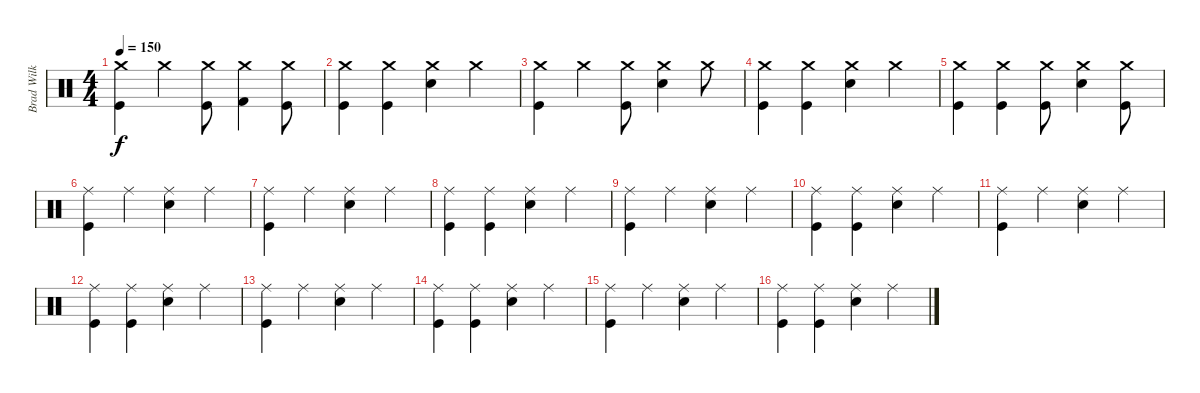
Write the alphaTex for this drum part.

\track ("Brad Wilk" "Brad Wilk") {instrument percussion}
\staff {score}
\articulation defaults
\ts (4 4)
\tempo 150
\clef neutral
\ks c
("Crash medium (hit)" "Kick (hit)").4{dy f} "Crash medium (hit)".4 ("Crash medium (hit)" "Kick (hit)").8 ("Crash medium (hit)" "Kick (hit) 2").4 ("Crash medium (hit)" "Kick (hit)").8 |
("Crash medium (hit)" "Kick (hit)").4 ("Crash medium (hit)" "Kick (hit)").4 ("Crash medium (hit)" "Electric Snare (hit)").4 "Crash medium (hit)".4 |
("Crash medium (hit)" "Kick (hit)").4 "Crash medium (hit)".4 ("Crash medium (hit)" "Kick (hit)").8 ("Crash medium (hit)" "Electric Snare (hit)").4 "Crash medium (hit)".8 |
("Crash medium (hit)" "Kick (hit)").4 ("Crash medium (hit)" "Kick (hit)").4 ("Crash medium (hit)" "Electric Snare (hit)").4 "Crash medium (hit)".4 |
("Crash medium (hit)" "Kick (hit)").4 ("Crash medium (hit)" "Kick (hit)").4 ("Crash medium (hit)" "Kick (hit)").8 ("Crash medium (hit)" "Electric Snare (hit)").4 ("Crash medium (hit)" "Kick (hit)").8 |
("Ride (middle)" "Kick (hit)").4 "Ride (middle)".4 ("Ride (middle)" "Electric Snare (hit)").4 "Ride (middle)".4 |
("Ride (middle)" "Kick (hit)").4 "Ride (middle)".4 ("Ride (middle)" "Electric Snare (hit)").4 "Ride (middle)".4 |
("Ride (middle)" "Kick (hit)").4 ("Ride (middle)" "Kick (hit)").4 ("Ride (middle)" "Electric Snare (hit)").4 "Ride (middle)".4 |
("Ride (middle)" "Kick (hit)").4 "Ride (middle)".4 ("Ride (middle)" "Electric Snare (hit)").4 "Ride (middle)".4 |
("Ride (middle)" "Kick (hit)").4 ("Ride (middle)" "Kick (hit)").4 ("Ride (middle)" "Electric Snare (hit)").4 "Ride (middle)".4 |
("Ride (middle)" "Kick (hit)").4 "Ride (middle)".4 ("Ride (middle)" "Electric Snare (hit)").4 "Ride (middle)".4 |
("Ride (middle)" "Kick (hit)").4 ("Ride (middle)" "Kick (hit)").4 ("Ride (middle)" "Electric Snare (hit)").4 "Ride (middle)".4 |
("Ride (middle)" "Kick (hit)").4 "Ride (middle)".4 ("Ride (middle)" "Electric Snare (hit)").4 "Ride (middle)".4 |
("Ride (middle)" "Kick (hit)").4 ("Ride (middle)" "Kick (hit)").4 ("Ride (middle)" "Electric Snare (hit)").4 "Ride (middle)".4 |
("Ride (middle)" "Kick (hit)").4 "Ride (middle)".4 ("Ride (middle)" "Electric Snare (hit)").4 "Ride (middle)".4 |
("Ride (middle)" "Kick (hit)").4 ("Ride (middle)" "Kick (hit)").4 ("Ride (middle)" "Electric Snare (hit)").4 "Ride (middle)".4
